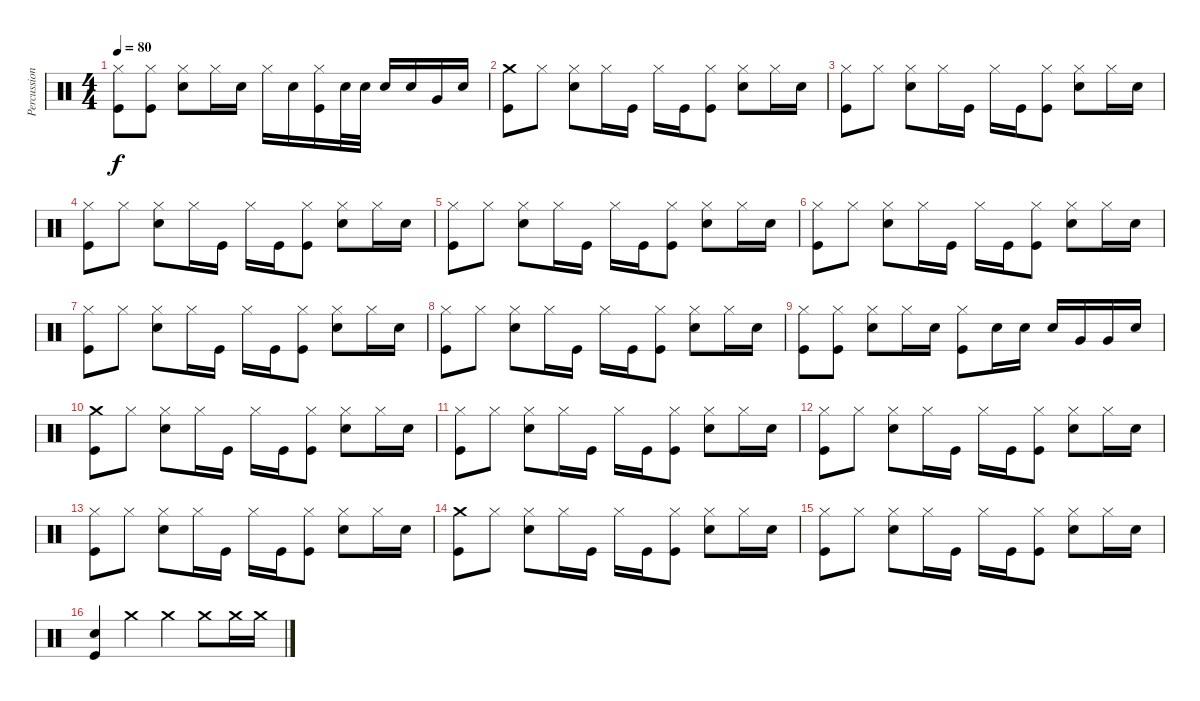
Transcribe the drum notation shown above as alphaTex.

\track ("Percussion" "Percussion") {instrument percussion}
\staff {score}
\articulation defaults
\ts (4 4)
\tempo 80
\clef neutral
\ks c
("Hi-Hat (closed)" "Kick (hit)").8{dy f} ("Hi-Hat (closed)" "Kick (hit)").8 ("Hi-Hat (closed)" "Snare (hit) 2").8 "Hi-Hat (closed)".16 "Snare (hit) 2".16 "Hi-Hat (closed)".16 "Snare (hit) 2".16 ("Hi-Hat (closed)" "Kick (hit)").16 "Snare (hit) 2".32 "Snare (hit) 2".32 "Snare (hit) 2".16 "Snare (hit) 2".16 "Very Low Tom (hit)".16 "Snare (hit) 2".16 |
("Crash medium (hit)" "Kick (hit)").8 "Hi-Hat (closed)".8 ("Hi-Hat (closed)" "Snare (hit) 2").8 "Hi-Hat (closed)".16 "Kick (hit)".16 "Hi-Hat (closed)".16 "Kick (hit)".16 ("Hi-Hat (closed)" "Kick (hit)").8 ("Hi-Hat (closed)" "Snare (hit) 2").8 "Hi-Hat (closed)".16 "Snare (hit) 2".16 |
("Hi-Hat (closed)" "Kick (hit)").8 "Hi-Hat (closed)".8 ("Hi-Hat (closed)" "Snare (hit) 2").8 "Hi-Hat (closed)".16 "Kick (hit)".16 "Hi-Hat (closed)".16 "Kick (hit)".16 ("Hi-Hat (closed)" "Kick (hit)").8 ("Hi-Hat (closed)" "Snare (hit) 2").8 "Hi-Hat (closed)".16 "Snare (hit) 2".16 |
("Hi-Hat (closed)" "Kick (hit)").8 "Hi-Hat (closed)".8 ("Hi-Hat (closed)" "Snare (hit) 2").8 "Hi-Hat (closed)".16 "Kick (hit)".16 "Hi-Hat (closed)".16 "Kick (hit)".16 ("Hi-Hat (closed)" "Kick (hit)").8 ("Hi-Hat (closed)" "Snare (hit) 2").8 "Hi-Hat (closed)".16 "Snare (hit) 2".16 |
("Hi-Hat (closed)" "Kick (hit)").8 "Hi-Hat (closed)".8 ("Hi-Hat (closed)" "Snare (hit) 2").8 "Hi-Hat (closed)".16 "Kick (hit)".16 "Hi-Hat (closed)".16 "Kick (hit)".16 ("Hi-Hat (closed)" "Kick (hit)").8 ("Hi-Hat (closed)" "Snare (hit) 2").8 "Hi-Hat (closed)".16 "Snare (hit) 2".16 |
("Hi-Hat (closed)" "Kick (hit)").8 "Hi-Hat (closed)".8 ("Hi-Hat (closed)" "Snare (hit) 2").8 "Hi-Hat (closed)".16 "Kick (hit)".16 "Hi-Hat (closed)".16 "Kick (hit)".16 ("Hi-Hat (closed)" "Kick (hit)").8 ("Hi-Hat (closed)" "Snare (hit) 2").8 "Hi-Hat (closed)".16 "Snare (hit) 2".16 |
("Hi-Hat (closed)" "Kick (hit)").8 "Hi-Hat (closed)".8 ("Hi-Hat (closed)" "Snare (hit) 2").8 "Hi-Hat (closed)".16 "Kick (hit)".16 "Hi-Hat (closed)".16 "Kick (hit)".16 ("Hi-Hat (closed)" "Kick (hit)").8 ("Hi-Hat (closed)" "Snare (hit) 2").8 "Hi-Hat (closed)".16 "Snare (hit) 2".16 |
("Hi-Hat (closed)" "Kick (hit)").8 "Hi-Hat (closed)".8 ("Hi-Hat (closed)" "Snare (hit) 2").8 "Hi-Hat (closed)".16 "Kick (hit)".16 "Hi-Hat (closed)".16 "Kick (hit)".16 ("Hi-Hat (closed)" "Kick (hit)").8 ("Hi-Hat (closed)" "Snare (hit) 2").8 "Hi-Hat (closed)".16 "Snare (hit) 2".16 |
("Hi-Hat (closed)" "Kick (hit)").8 ("Hi-Hat (closed)" "Kick (hit)").8 ("Hi-Hat (closed)" "Snare (hit) 2").8 "Hi-Hat (closed)".16 "Snare (hit) 2".16 ("Hi-Hat (closed)" "Kick (hit)").8 "Snare (hit) 2".16 "Snare (hit) 2".16 "Snare (hit) 2".16 "Very Low Tom (hit)".16 "Very Low Tom (hit)".16 "Snare (hit) 2".16 |
("Crash medium (hit)" "Kick (hit)").8 "Hi-Hat (closed)".8 ("Hi-Hat (closed)" "Snare (hit) 2").8 "Hi-Hat (closed)".16 "Kick (hit)".16 "Hi-Hat (closed)".16 "Kick (hit)".16 ("Hi-Hat (closed)" "Kick (hit)").8 ("Hi-Hat (closed)" "Snare (hit) 2").8 "Hi-Hat (closed)".16 "Snare (hit) 2".16 |
("Hi-Hat (closed)" "Kick (hit)").8 "Hi-Hat (closed)".8 ("Hi-Hat (closed)" "Snare (hit) 2").8 "Hi-Hat (closed)".16 "Kick (hit)".16 "Hi-Hat (closed)".16 "Kick (hit)".16 ("Hi-Hat (closed)" "Kick (hit)").8 ("Hi-Hat (closed)" "Snare (hit) 2").8 "Hi-Hat (closed)".16 "Snare (hit) 2".16 |
("Hi-Hat (closed)" "Kick (hit)").8 "Hi-Hat (closed)".8 ("Hi-Hat (closed)" "Snare (hit) 2").8 "Hi-Hat (closed)".16 "Kick (hit)".16 "Hi-Hat (closed)".16 "Kick (hit)".16 ("Hi-Hat (closed)" "Kick (hit)").8 ("Hi-Hat (closed)" "Snare (hit) 2").8 "Hi-Hat (closed)".16 "Snare (hit) 2".16 |
("Hi-Hat (closed)" "Kick (hit)").8 "Hi-Hat (closed)".8 ("Hi-Hat (closed)" "Snare (hit) 2").8 "Hi-Hat (closed)".16 "Kick (hit)".16 "Hi-Hat (closed)".16 "Kick (hit)".16 ("Hi-Hat (closed)" "Kick (hit)").8 ("Hi-Hat (closed)" "Snare (hit) 2").8 "Hi-Hat (closed)".16 "Snare (hit) 2".16 |
("Crash medium (hit)" "Kick (hit)").8 "Hi-Hat (closed)".8 ("Hi-Hat (closed)" "Snare (hit) 2").8 "Hi-Hat (closed)".16 "Kick (hit)".16 "Hi-Hat (closed)".16 "Kick (hit)".16 ("Hi-Hat (closed)" "Kick (hit)").8 ("Hi-Hat (closed)" "Snare (hit) 2").8 "Hi-Hat (closed)".16 "Snare (hit) 2".16 |
("Hi-Hat (closed)" "Kick (hit)").8 "Hi-Hat (closed)".8 ("Hi-Hat (closed)" "Snare (hit) 2").8 "Hi-Hat (closed)".16 "Kick (hit)".16 "Hi-Hat (closed)".16 "Kick (hit)".16 ("Hi-Hat (closed)" "Kick (hit)").8 ("Hi-Hat (closed)" "Snare (hit) 2").8 "Hi-Hat (closed)".16 "Snare (hit) 2".16 |
("Snare (hit) 2" "Kick (hit)").4 "Crash medium (hit)".4 "Crash medium (hit)".4 "Crash medium (hit)".8 "Crash medium (hit)".16 "Crash medium (hit)".16
